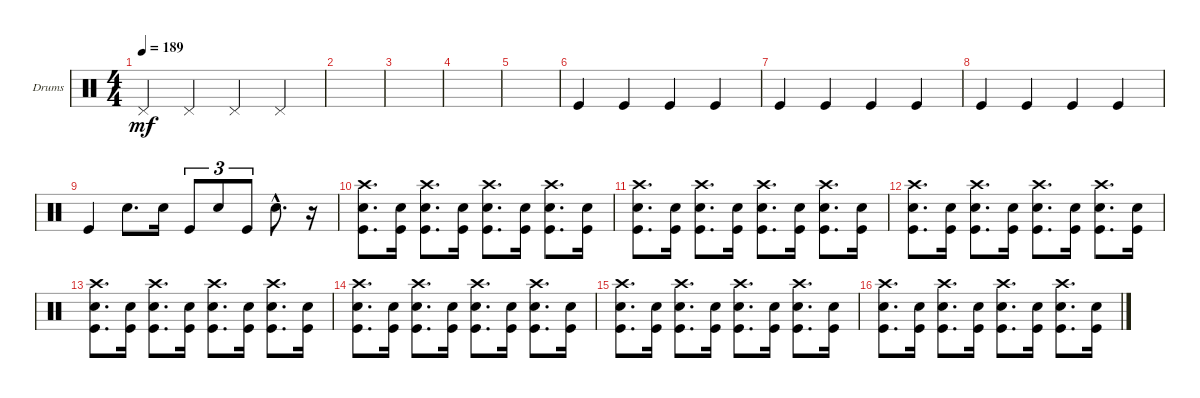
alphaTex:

\defaultSystemsLayout 4
\bracketExtendMode groupsimilarinstruments
\firstSystemTrackNameOrientation horizontal
\otherSystemsTrackNameOrientation horizontal
\track ("Drumkit" "Drums") {instrument percussion}
\staff {score}
\articulation defaults
\ts (4 4)
\tempo 189
\clef neutral
\ks c "Pedal Hi-Hat (hit)".4{dy mf} "Pedal Hi-Hat (hit)".4 "Pedal Hi-Hat (hit)".4 "Pedal Hi-Hat (hit)".4
|
\scale
0.472222 |
\scale
0.263889 |
\scale
0.263889 |
\scale
0.333333 |
\scale
0.333333 "Kick (hit)".4 "Kick (hit)".4 "Kick (hit)".4 "Kick (hit)".4 |
\scale
0.333333 "Kick (hit)".4 "Kick (hit)".4 "Kick (hit)".4 "Kick (hit)".4 |
\scale
0.333333 "Kick (hit)".4 "Kick (hit)".4 "Kick (hit)".4 "Kick (hit)".4 |
"Kick (hit)".4 "Snare (hit) 2".8{d} "Snare (hit) 2".16 "Kick (hit)".8{tu (3 2)} "Snare (hit) 2".8{tu (3 2)} "Kick (hit)".8{tu (3 2)} "Snare (hit) 2"{hac}.8{d} r.16 |
("Kick (hit)" "Crash high (hit)" "Snare (hit) 2").8{d} ("Snare (hit) 2" "Kick (hit)").16 ("Kick (hit)" "Crash high (hit)" "Snare (hit) 2").8{d} ("Snare (hit) 2" "Kick (hit)").16 ("Kick (hit)" "Crash high (hit)" "Snare (hit) 2").8{d} ("Snare (hit) 2" "Kick (hit)").16 ("Kick (hit)" "Crash high (hit)" "Snare (hit) 2").8{d} ("Snare (hit) 2" "Kick (hit)").16 |
("Kick (hit)" "Crash high (hit)" "Snare (hit) 2").8{d} ("Snare (hit) 2" "Kick (hit)").16 ("Kick (hit)" "Crash high (hit)" "Snare (hit) 2").8{d} ("Snare (hit) 2" "Kick (hit)").16 ("Kick (hit)" "Crash high (hit)" "Snare (hit) 2").8{d} ("Snare (hit) 2" "Kick (hit)").16 ("Kick (hit)" "Crash high (hit)" "Snare (hit) 2").8{d} ("Snare (hit) 2" "Kick (hit)").16 |
("Kick (hit)" "Crash high (hit)" "Snare (hit) 2").8{d} ("Snare (hit) 2" "Kick (hit)").16 ("Kick (hit)" "Crash high (hit)" "Snare (hit) 2").8{d} ("Snare (hit) 2" "Kick (hit)").16 ("Kick (hit)" "Crash high (hit)" "Snare (hit) 2").8{d} ("Snare (hit) 2" "Kick (hit)").16 ("Kick (hit)" "Crash high (hit)" "Snare (hit) 2").8{d} ("Snare (hit) 2" "Kick (hit)").16 |
("Kick (hit)" "Crash high (hit)" "Snare (hit) 2").8{d} ("Snare (hit) 2" "Kick (hit)").16 ("Kick (hit)" "Crash high (hit)" "Snare (hit) 2").8{d} ("Snare (hit) 2" "Kick (hit)").16 ("Kick (hit)" "Crash high (hit)" "Snare (hit) 2").8{d} ("Snare (hit) 2" "Kick (hit)").16 ("Kick (hit)" "Crash high (hit)" "Snare (hit) 2").8{d} ("Snare (hit) 2" "Kick (hit)").16 |
("Kick (hit)" "Crash high (hit)" "Snare (hit) 2").8{d} ("Snare (hit) 2" "Kick (hit)").16 ("Kick (hit)" "Crash high (hit)" "Snare (hit) 2").8{d} ("Snare (hit) 2" "Kick (hit)").16 ("Kick (hit)" "Crash high (hit)" "Snare (hit) 2").8{d} ("Snare (hit) 2" "Kick (hit)").16 ("Kick (hit)" "Crash high (hit)" "Snare (hit) 2").8{d} ("Snare (hit) 2" "Kick (hit)").16 |
("Kick (hit)" "Crash high (hit)" "Snare (hit) 2").8{d} ("Snare (hit) 2" "Kick (hit)").16 ("Kick (hit)" "Crash high (hit)" "Snare (hit) 2").8{d} ("Snare (hit) 2" "Kick (hit)").16 ("Kick (hit)" "Crash high (hit)" "Snare (hit) 2").8{d} ("Snare (hit) 2" "Kick (hit)").16 ("Kick (hit)" "Crash high (hit)" "Snare (hit) 2").8{d} ("Snare (hit) 2" "Kick (hit)").16 |
("Kick (hit)" "Crash high (hit)" "Snare (hit) 2").8{d} ("Snare (hit) 2" "Kick (hit)").16 ("Kick (hit)" "Crash high (hit)" "Snare (hit) 2").8{d} ("Snare (hit) 2" "Kick (hit)").16 ("Kick (hit)" "Crash high (hit)" "Snare (hit) 2").8{d} ("Snare (hit) 2" "Kick (hit)").16 ("Kick (hit)" "Crash high (hit)" "Snare (hit) 2").8{d} ("Snare (hit) 2" "Kick (hit)").16
